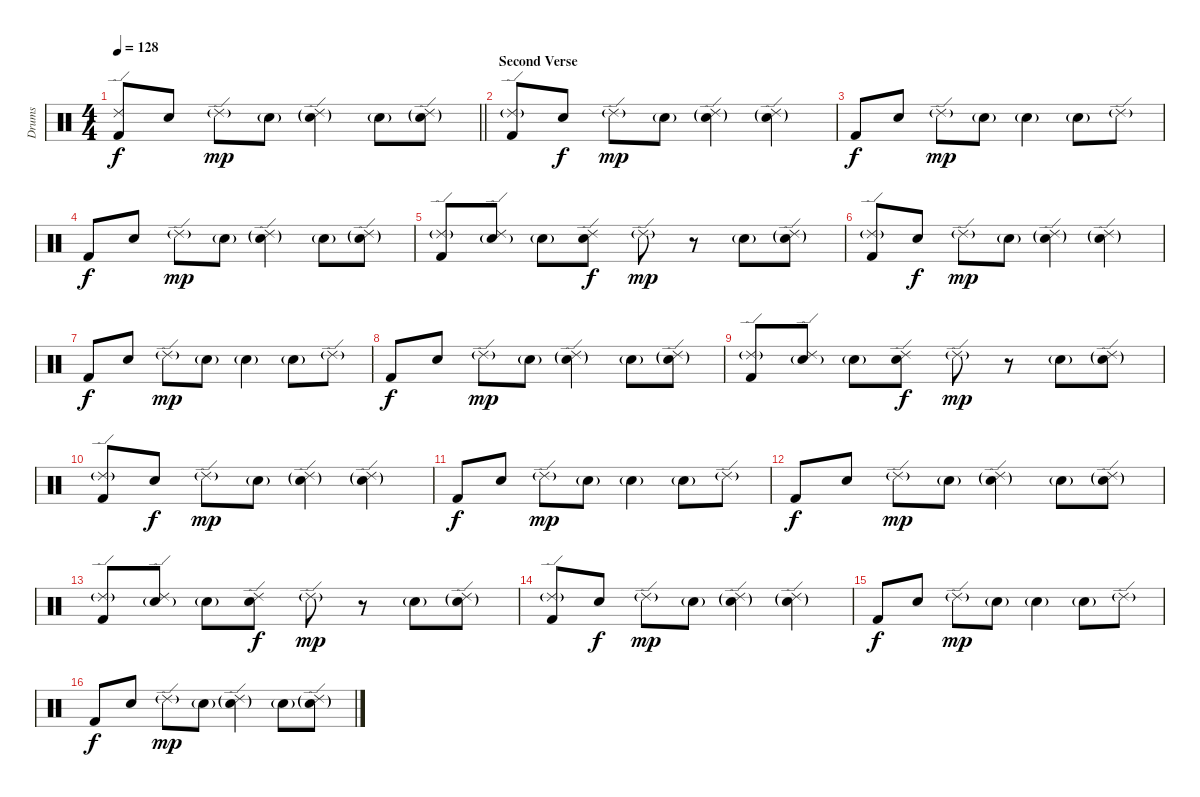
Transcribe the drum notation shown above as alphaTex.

\track ("Drums" "Drums") {instrument percussion}
\staff {score}
\articulation defaults
\ts (4 4)
\tempo 128
\clef neutral
\barLineRight lightlight
\ks c
("Ride (edge) 2" "Kick (hit) 2").8{dy f} "Snare (hit) 2".8 "Ride (edge) 2"{g}.8{dy mp} "Snare (hit) 2"{g}.8 ("Ride (edge) 2"{g} "Snare (hit) 2"{g}).4 "Snare (hit) 2"{g}.8 ("Ride (edge) 2"{g} "Snare (hit) 2"{g}).8 |
\section ("" "Second Verse")
("Ride (edge) 2"{g} "Kick (hit) 2").8 "Snare (hit) 2".8{dy f} "Ride (edge) 2"{g}.8{dy mp} "Snare (hit) 2"{g}.8 ("Ride (edge) 2"{g} "Snare (hit) 2"{g}).4 ("Ride (edge) 2"{g} "Snare (hit) 2"{g}).4 |
"Kick (hit) 2".8{dy f} "Snare (hit) 2".8 "Ride (edge) 2"{g}.8{dy mp} "Snare (hit) 2"{g}.8 "Snare (hit) 2"{g}.4 "Snare (hit) 2"{g}.8 "Ride (edge) 2"{g}.8 |
"Kick (hit) 2".8{dy f} "Snare (hit) 2".8 "Ride (edge) 2"{g}.8{dy mp} "Snare (hit) 2"{g}.8 ("Ride (edge) 2"{g} "Snare (hit) 2"{g}).4 "Snare (hit) 2"{g}.8 ("Ride (edge) 2"{g} "Snare (hit) 2"{g}).8 |
("Ride (edge) 2"{g} "Kick (hit) 2").8 ("Ride (edge) 2" "Snare (hit) 2"{g}).8 "Snare (hit) 2"{g}.8 ("Ride (edge) 2" "Snare (hit) 2").8{dy f} "Ride (edge) 2"{g}.8{dy mp} r.8 "Snare (hit) 2"{g}.8 ("Ride (edge) 2"{g} "Snare (hit) 2"{g}).8 |
("Ride (edge) 2"{g} "Kick (hit) 2").8 "Snare (hit) 2".8{dy f} "Ride (edge) 2"{g}.8{dy mp} "Snare (hit) 2"{g}.8 ("Ride (edge) 2"{g} "Snare (hit) 2"{g}).4 ("Ride (edge) 2"{g} "Snare (hit) 2"{g}).4 |
"Kick (hit) 2".8{dy f} "Snare (hit) 2".8 "Ride (edge) 2"{g}.8{dy mp} "Snare (hit) 2"{g}.8 "Snare (hit) 2"{g}.4 "Snare (hit) 2"{g}.8 "Ride (edge) 2"{g}.8 |
"Kick (hit) 2".8{dy f} "Snare (hit) 2".8 "Ride (edge) 2"{g}.8{dy mp} "Snare (hit) 2"{g}.8 ("Ride (edge) 2"{g} "Snare (hit) 2"{g}).4 "Snare (hit) 2"{g}.8 ("Ride (edge) 2"{g} "Snare (hit) 2"{g}).8 |
("Ride (edge) 2"{g} "Kick (hit) 2").8 ("Ride (edge) 2" "Snare (hit) 2"{g}).8 "Snare (hit) 2"{g}.8 ("Ride (edge) 2" "Snare (hit) 2").8{dy f} "Ride (edge) 2"{g}.8{dy mp} r.8 "Snare (hit) 2"{g}.8 ("Ride (edge) 2"{g} "Snare (hit) 2"{g}).8 |
("Ride (edge) 2"{g} "Kick (hit) 2").8 "Snare (hit) 2".8{dy f} "Ride (edge) 2"{g}.8{dy mp} "Snare (hit) 2"{g}.8 ("Ride (edge) 2"{g} "Snare (hit) 2"{g}).4 ("Ride (edge) 2"{g} "Snare (hit) 2"{g}).4 |
"Kick (hit) 2".8{dy f} "Snare (hit) 2".8 "Ride (edge) 2"{g}.8{dy mp} "Snare (hit) 2"{g}.8 "Snare (hit) 2"{g}.4 "Snare (hit) 2"{g}.8 "Ride (edge) 2"{g}.8 |
"Kick (hit) 2".8{dy f} "Snare (hit) 2".8 "Ride (edge) 2"{g}.8{dy mp} "Snare (hit) 2"{g}.8 ("Ride (edge) 2"{g} "Snare (hit) 2"{g}).4 "Snare (hit) 2"{g}.8 ("Ride (edge) 2"{g} "Snare (hit) 2"{g}).8 |
("Ride (edge) 2"{g} "Kick (hit) 2").8 ("Ride (edge) 2" "Snare (hit) 2"{g}).8 "Snare (hit) 2"{g}.8 ("Ride (edge) 2" "Snare (hit) 2").8{dy f} "Ride (edge) 2"{g}.8{dy mp} r.8 "Snare (hit) 2"{g}.8 ("Ride (edge) 2"{g} "Snare (hit) 2"{g}).8 |
("Ride (edge) 2"{g} "Kick (hit) 2").8 "Snare (hit) 2".8{dy f} "Ride (edge) 2"{g}.8{dy mp} "Snare (hit) 2"{g}.8 ("Ride (edge) 2"{g} "Snare (hit) 2"{g}).4 ("Ride (edge) 2"{g} "Snare (hit) 2"{g}).4 |
"Kick (hit) 2".8{dy f} "Snare (hit) 2".8 "Ride (edge) 2"{g}.8{dy mp} "Snare (hit) 2"{g}.8 "Snare (hit) 2"{g}.4 "Snare (hit) 2"{g}.8 "Ride (edge) 2"{g}.8 |
"Kick (hit) 2".8{dy f} "Snare (hit) 2".8 "Ride (edge) 2"{g}.8{dy mp} "Snare (hit) 2"{g}.8 ("Ride (edge) 2"{g} "Snare (hit) 2"{g}).4 "Snare (hit) 2"{g}.8 ("Ride (edge) 2"{g} "Snare (hit) 2"{g}).8
